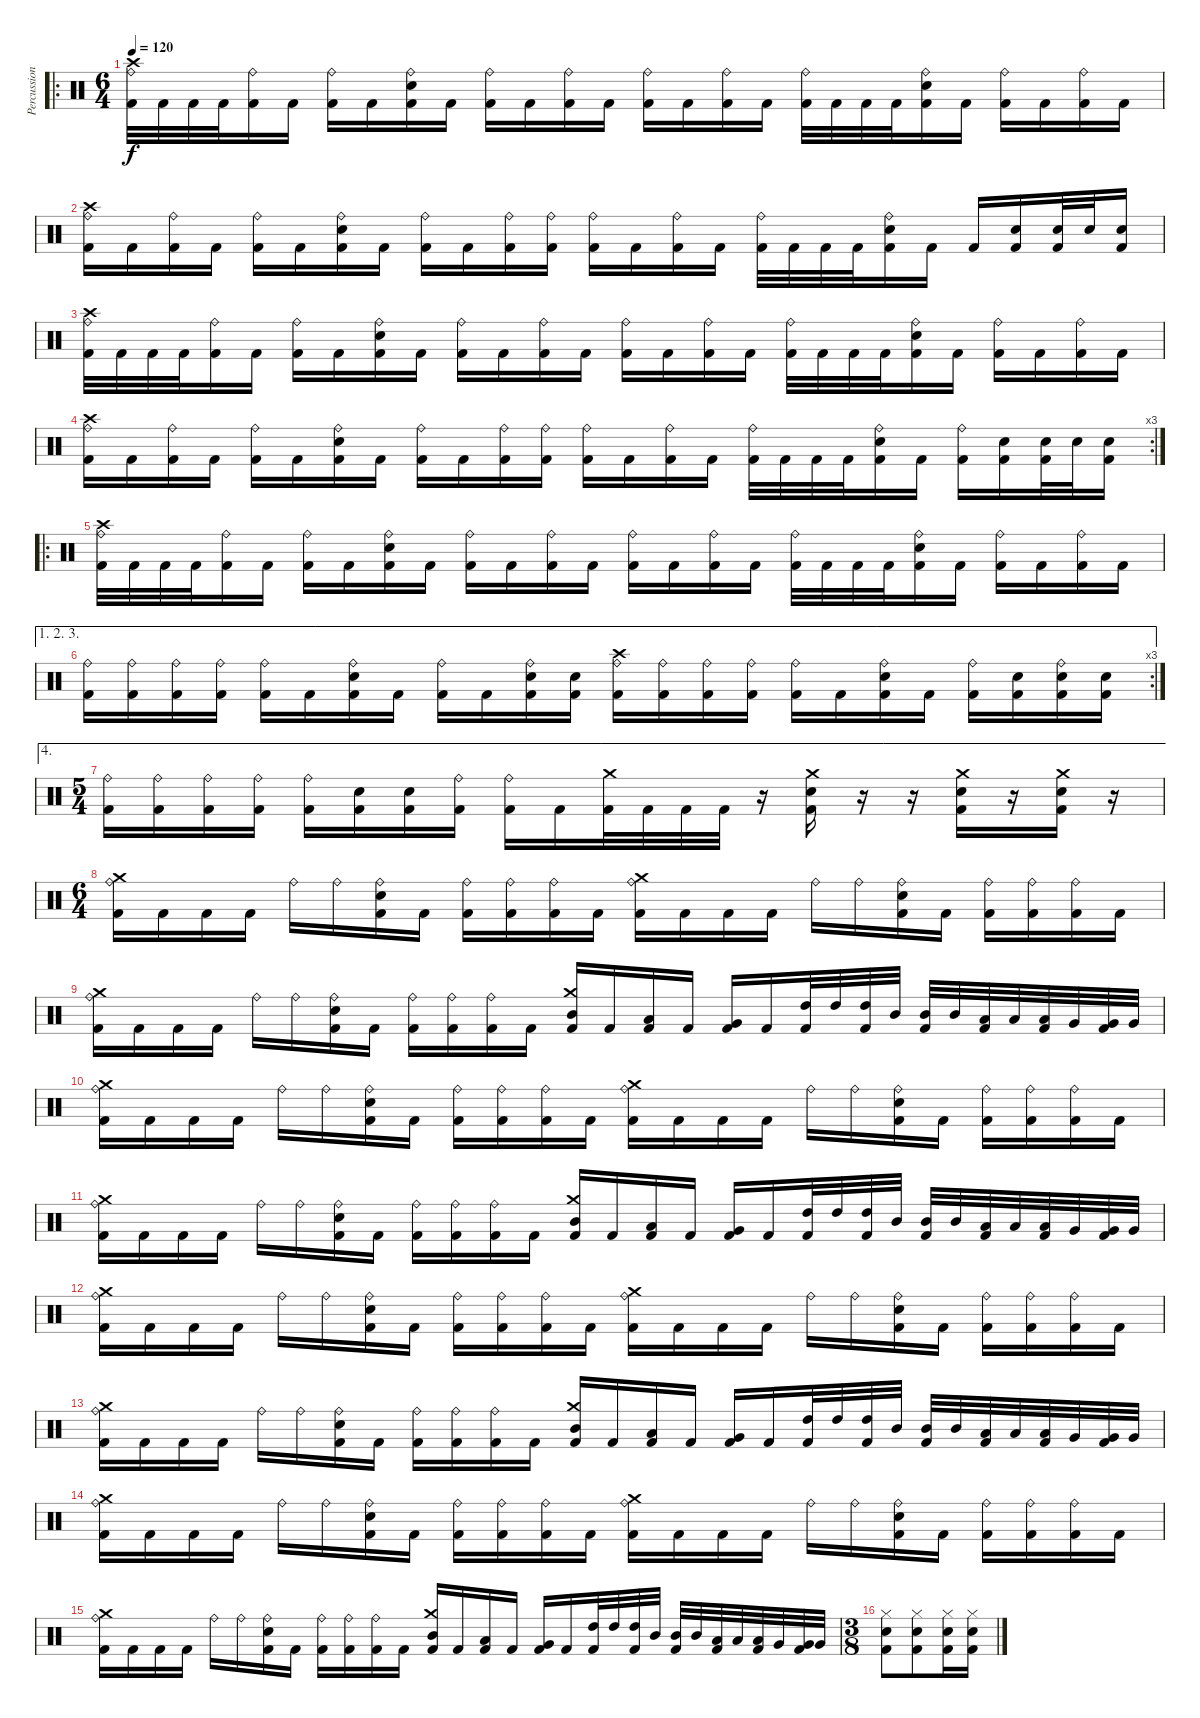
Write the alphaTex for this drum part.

\track ("Percussion" "Percussion") {instrument percussion}
\staff {score}
\articulation defaults
\ro
\ts (6 4)
\tempo 120
\clef neutral
\ks c
("Crash high (hit)" "Ride (bell)" "Kick (hit) 2").32{dy f} "Kick (hit) 2".32 "Kick (hit) 2".32 "Kick (hit) 2".32 ("Ride (bell)" "Kick (hit) 2").16 "Kick (hit) 2".16 ("Ride (bell)" "Kick (hit) 2").16 "Kick (hit) 2".16 ("Ride (bell)" "Snare (hit) 2" "Kick (hit) 2").16 "Kick (hit) 2".16 ("Ride (bell)" "Kick (hit) 2").16 "Kick (hit) 2".16 ("Ride (bell)" "Kick (hit) 2").16 "Kick (hit) 2".16 ("Ride (bell)" "Kick (hit) 2").16 "Kick (hit) 2".16 ("Ride (bell)" "Kick (hit) 2").16 "Kick (hit) 2".16 ("Ride (bell)" "Kick (hit) 2").32 "Kick (hit) 2".32 "Kick (hit) 2".32 "Kick (hit) 2".32 ("Ride (bell)" "Snare (hit) 2" "Kick (hit) 2").16 "Kick (hit) 2".16 ("Ride (bell)" "Kick (hit) 2").16 "Kick (hit) 2".16 ("Ride (bell)" "Kick (hit) 2").16 "Kick (hit) 2".16 |
("Crash high (hit)" "Ride (bell)" "Kick (hit) 2").16 "Kick (hit) 2".16 ("Ride (bell)" "Kick (hit) 2").16 "Kick (hit) 2".16 ("Ride (bell)" "Kick (hit) 2").16 "Kick (hit) 2".16 ("Ride (bell)" "Snare (hit) 2" "Kick (hit) 2").16 "Kick (hit) 2".16 ("Ride (bell)" "Kick (hit) 2").16 "Kick (hit) 2".16 ("Ride (bell)" "Kick (hit) 2").16 ("Ride (bell)" "Kick (hit) 2").16 ("Ride (bell)" "Kick (hit) 2").16 "Kick (hit) 2".16 ("Ride (bell)" "Kick (hit) 2").16 "Kick (hit) 2".16 ("Ride (bell)" "Kick (hit) 2").32 "Kick (hit) 2".32 "Kick (hit) 2".32 "Kick (hit) 2".32 ("Ride (bell)" "Snare (hit) 2" "Kick (hit) 2").16 "Kick (hit) 2".16 "Kick (hit) 2".16 ("Snare (hit) 2" "Kick (hit) 2").16 ("Snare (hit) 2" "Kick (hit) 2").32 "Snare (hit) 2".32 ("Snare (hit) 2" "Kick (hit) 2").16 |
("Crash high (hit)" "Ride (bell)" "Kick (hit) 2").32 "Kick (hit) 2".32 "Kick (hit) 2".32 "Kick (hit) 2".32 ("Ride (bell)" "Kick (hit) 2").16 "Kick (hit) 2".16 ("Ride (bell)" "Kick (hit) 2").16 "Kick (hit) 2".16 ("Ride (bell)" "Snare (hit) 2" "Kick (hit) 2").16 "Kick (hit) 2".16 ("Ride (bell)" "Kick (hit) 2").16 "Kick (hit) 2".16 ("Ride (bell)" "Kick (hit) 2").16 "Kick (hit) 2".16 ("Ride (bell)" "Kick (hit) 2").16 "Kick (hit) 2".16 ("Ride (bell)" "Kick (hit) 2").16 "Kick (hit) 2".16 ("Ride (bell)" "Kick (hit) 2").32 "Kick (hit) 2".32 "Kick (hit) 2".32 "Kick (hit) 2".32 ("Ride (bell)" "Snare (hit) 2" "Kick (hit) 2").16 "Kick (hit) 2".16 ("Ride (bell)" "Kick (hit) 2").16 "Kick (hit) 2".16 ("Ride (bell)" "Kick (hit) 2").16 "Kick (hit) 2".16 |
\rc 3
("Crash high (hit)" "Ride (bell)" "Kick (hit) 2").16 "Kick (hit) 2".16 ("Ride (bell)" "Kick (hit) 2").16 "Kick (hit) 2".16 ("Ride (bell)" "Kick (hit) 2").16 "Kick (hit) 2".16 ("Ride (bell)" "Snare (hit) 2" "Kick (hit) 2").16 "Kick (hit) 2".16 ("Ride (bell)" "Kick (hit) 2").16 "Kick (hit) 2".16 ("Ride (bell)" "Kick (hit) 2").16 ("Ride (bell)" "Kick (hit) 2").16 ("Ride (bell)" "Kick (hit) 2").16 "Kick (hit) 2".16 ("Ride (bell)" "Kick (hit) 2").16 "Kick (hit) 2".16 ("Ride (bell)" "Kick (hit) 2").32 "Kick (hit) 2".32 "Kick (hit) 2".32 "Kick (hit) 2".32 ("Ride (bell)" "Snare (hit) 2" "Kick (hit) 2").16 "Kick (hit) 2".16 ("Ride (bell)" "Kick (hit) 2").16 ("Snare (hit) 2" "Kick (hit) 2").16 ("Snare (hit) 2" "Kick (hit) 2").32 "Snare (hit) 2".32 ("Snare (hit) 2" "Kick (hit) 2").16 |
\ro
("Crash high (hit)" "Ride (bell)" "Kick (hit) 2").32 "Kick (hit) 2".32 "Kick (hit) 2".32 "Kick (hit) 2".32 ("Ride (bell)" "Kick (hit) 2").16 "Kick (hit) 2".16 ("Ride (bell)" "Kick (hit) 2").16 "Kick (hit) 2".16 ("Ride (bell)" "Snare (hit) 2" "Kick (hit) 2").16 "Kick (hit) 2".16 ("Ride (bell)" "Kick (hit) 2").16 "Kick (hit) 2".16 ("Ride (bell)" "Kick (hit) 2").16 "Kick (hit) 2".16 ("Ride (bell)" "Kick (hit) 2").16 "Kick (hit) 2".16 ("Ride (bell)" "Kick (hit) 2").16 "Kick (hit) 2".16 ("Ride (bell)" "Kick (hit) 2").32 "Kick (hit) 2".32 "Kick (hit) 2".32 "Kick (hit) 2".32 ("Ride (bell)" "Snare (hit) 2" "Kick (hit) 2").16 "Kick (hit) 2".16 ("Ride (bell)" "Kick (hit) 2").16 "Kick (hit) 2".16 ("Ride (bell)" "Kick (hit) 2").16 "Kick (hit) 2".16 |
\ae (1 2 3)
\rc 3
("Ride (bell)" "Kick (hit) 2").16 ("Ride (bell)" "Kick (hit) 2").16 ("Ride (bell)" "Kick (hit) 2").16 ("Ride (bell)" "Kick (hit) 2").16 ("Ride (bell)" "Kick (hit) 2").16 "Kick (hit) 2".16 ("Ride (bell)" "Snare (hit) 2" "Kick (hit) 2").16 "Kick (hit) 2".16 ("Ride (bell)" "Kick (hit) 2").16 "Kick (hit) 2".16 ("Ride (bell)" "Snare (hit) 2" "Kick (hit) 2").16 ("Snare (hit) 2" "Kick (hit) 2").16 ("Crash high (hit)" "Ride (bell)" "Kick (hit) 2").16 ("Ride (bell)" "Kick (hit) 2").16 ("Ride (bell)" "Kick (hit) 2").16 ("Ride (bell)" "Kick (hit) 2").16 ("Ride (bell)" "Kick (hit) 2").16 "Kick (hit) 2".16 ("Ride (bell)" "Snare (hit) 2" "Kick (hit) 2").16 "Kick (hit) 2".16 ("Ride (bell)" "Kick (hit) 2").16 ("Snare (hit) 2" "Kick (hit) 2").16 ("Ride (bell)" "Snare (hit) 2" "Kick (hit) 2").16 ("Snare (hit) 2" "Kick (hit) 2").16 |
\ae 4
\ts (5 4)
("Ride (bell)" "Kick (hit) 2").16 ("Ride (bell)" "Kick (hit) 2").16 ("Ride (bell)" "Kick (hit) 2").16 ("Ride (bell)" "Kick (hit) 2").16 ("Ride (bell)" "Kick (hit) 2").16 ("Snare (hit) 2" "Kick (hit) 2").16 ("Snare (hit) 2" "Kick (hit) 2").16 ("Ride (bell)" "Kick (hit) 2").16 ("Ride (bell)" "Kick (hit) 2").16 "Kick (hit) 2".16 ("Crash medium (hit)" "Kick (hit) 2").32 "Kick (hit) 2".32 "Kick (hit) 2".32 "Kick (hit) 2".32 r.16 ("Crash medium (hit)" "Snare (hit) 2" "Kick (hit) 2").16 r.16 r.16 ("Crash medium (hit)" "Snare (hit) 2" "Kick (hit) 2").16 r.16 ("Crash medium (hit)" "Snare (hit) 2" "Kick (hit) 2").16 r.16 |
\ts (6 4)
("Crash medium (hit)" "Ride (bell)" "Kick (hit) 2").16 "Kick (hit) 2".16 "Kick (hit) 2".16 "Kick (hit) 2".16 "Ride (bell)".16 "Ride (bell)".16 ("Ride (bell)" "Snare (hit) 2" "Kick (hit) 2").16 "Kick (hit) 2".16 ("Ride (bell)" "Kick (hit) 2").16 ("Ride (bell)" "Kick (hit) 2").16 ("Ride (bell)" "Kick (hit) 2").16 "Kick (hit) 2".16 ("Crash medium (hit)" "Ride (bell)" "Kick (hit) 2").16 "Kick (hit) 2".16 "Kick (hit) 2".16 "Kick (hit) 2".16 "Ride (bell)".16 "Ride (bell)".16 ("Ride (bell)" "Snare (hit) 2" "Kick (hit) 2").16 "Kick (hit) 2".16 ("Ride (bell)" "Kick (hit) 2").16 ("Ride (bell)" "Kick (hit) 2").16 ("Ride (bell)" "Kick (hit) 2").16 "Kick (hit) 2".16 |
("Crash medium (hit)" "Ride (bell)" "Kick (hit) 2").16 "Kick (hit) 2".16 "Kick (hit) 2".16 "Kick (hit) 2".16 "Ride (bell)".16 "Ride (bell)".16 ("Ride (bell)" "Snare (hit) 2" "Kick (hit) 2").16 "Kick (hit) 2".16 ("Ride (bell)" "Kick (hit) 2").16 ("Ride (bell)" "Kick (hit) 2").16 ("Ride (bell)" "Kick (hit) 2").16 "Kick (hit) 2".16 ("Crash medium (hit)" "Mid Tom (hit)" "Kick (hit) 2").16 "Kick (hit) 2".16 ("Low Tom (hit)" "Kick (hit) 2").16 "Kick (hit) 2".16 ("Very Low Tom (hit)" "Kick (hit) 2").16 "Kick (hit) 2".16 ("High Tom (hit)" "Kick (hit) 2").32 "High Tom (hit)".32 ("High Tom (hit)" "Kick (hit) 2").32 "Mid Tom (hit)".32 ("Mid Tom (hit)" "Kick (hit) 2").32 "Mid Tom (hit)".32 ("Low Tom (hit)" "Kick (hit) 2").32 "Low Tom (hit)".32 ("Low Tom (hit)" "Kick (hit) 2").32 "Very Low Tom (hit)".32 ("Very Low Tom (hit)" "Kick (hit) 2").32 "Very Low Tom (hit)".32 |
("Crash medium (hit)" "Ride (bell)" "Kick (hit) 2").16 "Kick (hit) 2".16 "Kick (hit) 2".16 "Kick (hit) 2".16 "Ride (bell)".16 "Ride (bell)".16 ("Ride (bell)" "Snare (hit) 2" "Kick (hit) 2").16 "Kick (hit) 2".16 ("Ride (bell)" "Kick (hit) 2").16 ("Ride (bell)" "Kick (hit) 2").16 ("Ride (bell)" "Kick (hit) 2").16 "Kick (hit) 2".16 ("Crash medium (hit)" "Ride (bell)" "Kick (hit) 2").16 "Kick (hit) 2".16 "Kick (hit) 2".16 "Kick (hit) 2".16 "Ride (bell)".16 "Ride (bell)".16 ("Ride (bell)" "Snare (hit) 2" "Kick (hit) 2").16 "Kick (hit) 2".16 ("Ride (bell)" "Kick (hit) 2").16 ("Ride (bell)" "Kick (hit) 2").16 ("Ride (bell)" "Kick (hit) 2").16 "Kick (hit) 2".16 |
("Crash medium (hit)" "Ride (bell)" "Kick (hit) 2").16 "Kick (hit) 2".16 "Kick (hit) 2".16 "Kick (hit) 2".16 "Ride (bell)".16 "Ride (bell)".16 ("Ride (bell)" "Snare (hit) 2" "Kick (hit) 2").16 "Kick (hit) 2".16 ("Ride (bell)" "Kick (hit) 2").16 ("Ride (bell)" "Kick (hit) 2").16 ("Ride (bell)" "Kick (hit) 2").16 "Kick (hit) 2".16 ("Crash medium (hit)" "Mid Tom (hit)" "Kick (hit) 2").16 "Kick (hit) 2".16 ("Low Tom (hit)" "Kick (hit) 2").16 "Kick (hit) 2".16 ("Very Low Tom (hit)" "Kick (hit) 2").16 "Kick (hit) 2".16 ("High Tom (hit)" "Kick (hit) 2").32 "High Tom (hit)".32 ("High Tom (hit)" "Kick (hit) 2").32 "Mid Tom (hit)".32 ("Mid Tom (hit)" "Kick (hit) 2").32 "Mid Tom (hit)".32 ("Low Tom (hit)" "Kick (hit) 2").32 "Low Tom (hit)".32 ("Low Tom (hit)" "Kick (hit) 2").32 "Very Low Tom (hit)".32 ("Very Low Tom (hit)" "Kick (hit) 2").32 "Very Low Tom (hit)".32 |
("Crash medium (hit)" "Ride (bell)" "Kick (hit) 2").16 "Kick (hit) 2".16 "Kick (hit) 2".16 "Kick (hit) 2".16 "Ride (bell)".16 "Ride (bell)".16 ("Ride (bell)" "Snare (hit) 2" "Kick (hit) 2").16 "Kick (hit) 2".16 ("Ride (bell)" "Kick (hit) 2").16 ("Ride (bell)" "Kick (hit) 2").16 ("Ride (bell)" "Kick (hit) 2").16 "Kick (hit) 2".16 ("Crash medium (hit)" "Ride (bell)" "Kick (hit) 2").16 "Kick (hit) 2".16 "Kick (hit) 2".16 "Kick (hit) 2".16 "Ride (bell)".16 "Ride (bell)".16 ("Ride (bell)" "Snare (hit) 2" "Kick (hit) 2").16 "Kick (hit) 2".16 ("Ride (bell)" "Kick (hit) 2").16 ("Ride (bell)" "Kick (hit) 2").16 ("Ride (bell)" "Kick (hit) 2").16 "Kick (hit) 2".16 |
("Crash medium (hit)" "Ride (bell)" "Kick (hit) 2").16 "Kick (hit) 2".16 "Kick (hit) 2".16 "Kick (hit) 2".16 "Ride (bell)".16 "Ride (bell)".16 ("Ride (bell)" "Snare (hit) 2" "Kick (hit) 2").16 "Kick (hit) 2".16 ("Ride (bell)" "Kick (hit) 2").16 ("Ride (bell)" "Kick (hit) 2").16 ("Ride (bell)" "Kick (hit) 2").16 "Kick (hit) 2".16 ("Crash medium (hit)" "Mid Tom (hit)" "Kick (hit) 2").16 "Kick (hit) 2".16 ("Low Tom (hit)" "Kick (hit) 2").16 "Kick (hit) 2".16 ("Very Low Tom (hit)" "Kick (hit) 2").16 "Kick (hit) 2".16 ("High Tom (hit)" "Kick (hit) 2").32 "High Tom (hit)".32 ("High Tom (hit)" "Kick (hit) 2").32 "Mid Tom (hit)".32 ("Mid Tom (hit)" "Kick (hit) 2").32 "Mid Tom (hit)".32 ("Low Tom (hit)" "Kick (hit) 2").32 "Low Tom (hit)".32 ("Low Tom (hit)" "Kick (hit) 2").32 "Very Low Tom (hit)".32 ("Very Low Tom (hit)" "Kick (hit) 2").32 "Very Low Tom (hit)".32 |
("Crash medium (hit)" "Ride (bell)" "Kick (hit) 2").16 "Kick (hit) 2".16 "Kick (hit) 2".16 "Kick (hit) 2".16 "Ride (bell)".16 "Ride (bell)".16 ("Ride (bell)" "Snare (hit) 2" "Kick (hit) 2").16 "Kick (hit) 2".16 ("Ride (bell)" "Kick (hit) 2").16 ("Ride (bell)" "Kick (hit) 2").16 ("Ride (bell)" "Kick (hit) 2").16 "Kick (hit) 2".16 ("Crash medium (hit)" "Ride (bell)" "Kick (hit) 2").16 "Kick (hit) 2".16 "Kick (hit) 2".16 "Kick (hit) 2".16 "Ride (bell)".16 "Ride (bell)".16 ("Ride (bell)" "Snare (hit) 2" "Kick (hit) 2").16 "Kick (hit) 2".16 ("Ride (bell)" "Kick (hit) 2").16 ("Ride (bell)" "Kick (hit) 2").16 ("Ride (bell)" "Kick (hit) 2").16 "Kick (hit) 2".16 |
("Crash medium (hit)" "Ride (bell)" "Kick (hit) 2").16 "Kick (hit) 2".16 "Kick (hit) 2".16 "Kick (hit) 2".16 "Ride (bell)".16 "Ride (bell)".16 ("Ride (bell)" "Snare (hit) 2" "Kick (hit) 2").16 "Kick (hit) 2".16 ("Ride (bell)" "Kick (hit) 2").16 ("Ride (bell)" "Kick (hit) 2").16 ("Ride (bell)" "Kick (hit) 2").16 "Kick (hit) 2".16 ("Crash medium (hit)" "Mid Tom (hit)" "Kick (hit) 2").16 "Kick (hit) 2".16 ("Low Tom (hit)" "Kick (hit) 2").16 "Kick (hit) 2".16 ("Very Low Tom (hit)" "Kick (hit) 2").16 "Kick (hit) 2".16 ("High Tom (hit)" "Kick (hit) 2").32 "High Tom (hit)".32 ("High Tom (hit)" "Kick (hit) 2").32 "Mid Tom (hit)".32 ("Mid Tom (hit)" "Kick (hit) 2").32 "Mid Tom (hit)".32 ("Low Tom (hit)" "Kick (hit) 2").32 "Low Tom (hit)".32 ("Low Tom (hit)" "Kick (hit) 2").32 "Very Low Tom (hit)".32 ("Very Low Tom (hit)" "Kick (hit) 2").32 "Very Low Tom (hit)".32 |
\ts (3 8)
("Hi-Hat (closed)" "Snare (hit) 2" "Kick (hit) 2").8 ("Hi-Hat (closed)" "Snare (hit) 2" "Kick (hit) 2").8 ("Hi-Hat (closed)" "Snare (hit) 2" "Kick (hit) 2").16 ("Hi-Hat (closed)" "Snare (hit) 2" "Kick (hit) 2").16
